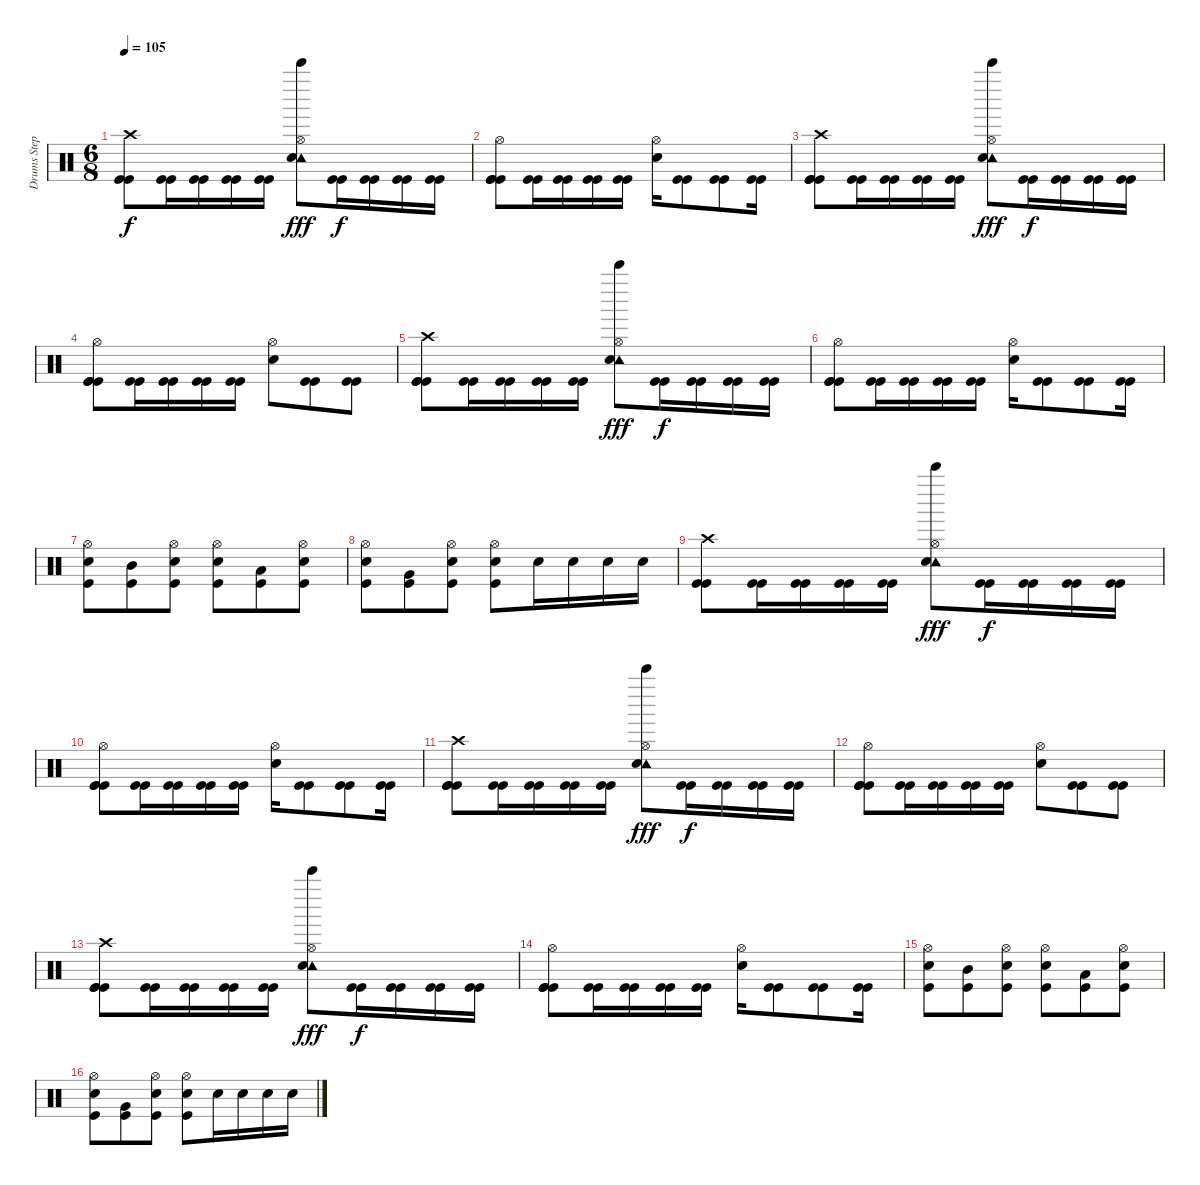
\track ("Drums Stephen van Haestregt" "Drums Step") {instrument percussion}
\staff {score}
\articulation defaults
\ts (6 8)
\tempo 105
\clef neutral
\ks c
("Kick (hit)" "Kick (hit)" "Crash high (hit)").8{dy f} ("Kick (hit)" "Kick (hit)").16 ("Kick (hit)" "Kick (hit)").16 ("Kick (hit)" "Kick (hit)").16 ("Kick (hit)" "Kick (hit)").16 ("Tambourine (hit)" "Bell Tree (hit)" "Snare (hit) 2" "Hi-Hat (open)").8{dy fff} ("Kick (hit)" "Kick (hit)").16{dy f} ("Kick (hit)" "Kick (hit)").16 ("Kick (hit)" "Kick (hit)").16 ("Kick (hit)" "Kick (hit)").16 |
("Kick (hit)" "Kick (hit)" "Kick (hit)" "Hi-Hat (open)").8 ("Kick (hit)" "Kick (hit)").16 ("Kick (hit)" "Kick (hit)").16 ("Kick (hit)" "Kick (hit)").16 ("Kick (hit)" "Kick (hit)").16 ("Snare (hit) 2" "Hi-Hat (open)").16 ("Kick (hit)" "Kick (hit)").8 ("Kick (hit)" "Kick (hit)").8 ("Kick (hit)" "Kick (hit)").16 |
("Kick (hit)" "Kick (hit)" "Kick (hit)" "Crash high (hit)").8 ("Kick (hit)" "Kick (hit)").16 ("Kick (hit)" "Kick (hit)").16 ("Kick (hit)" "Kick (hit)").16 ("Kick (hit)" "Kick (hit)").16 ("Tambourine (hit)" "Bell Tree (hit)" "Snare (hit) 2" "Hi-Hat (open)").8{dy fff} ("Kick (hit)" "Kick (hit)").16{dy f} ("Kick (hit)" "Kick (hit)").16 ("Kick (hit)" "Kick (hit)").16 ("Kick (hit)" "Kick (hit)").16 |
("Kick (hit)" "Kick (hit)" "Kick (hit)" "Hi-Hat (open)").8 ("Kick (hit)" "Kick (hit)").16 ("Kick (hit)" "Kick (hit)").16 ("Kick (hit)" "Kick (hit)").16 ("Kick (hit)" "Kick (hit)").16 ("Snare (hit) 2" "Hi-Hat (open)").8 ("Kick (hit)" "Kick (hit)").8 ("Kick (hit)" "Kick (hit)").8 |
("Kick (hit)" "Kick (hit)" "Kick (hit)" "Crash high (hit)").8 ("Kick (hit)" "Kick (hit)").16 ("Kick (hit)" "Kick (hit)").16 ("Kick (hit)" "Kick (hit)").16 ("Kick (hit)" "Kick (hit)").16 ("Bell Tree (hit)" "Tambourine (hit)" "Snare (hit) 2" "Hi-Hat (open)").8{dy fff} ("Kick (hit)" "Kick (hit)").16{dy f} ("Kick (hit)" "Kick (hit)").16 ("Kick (hit)" "Kick (hit)").16 ("Kick (hit)" "Kick (hit)").16 |
("Kick (hit)" "Kick (hit)" "Kick (hit)" "Hi-Hat (open)").8 ("Kick (hit)" "Kick (hit)").16 ("Kick (hit)" "Kick (hit)").16 ("Kick (hit)" "Kick (hit)").16 ("Kick (hit)" "Kick (hit)").16 ("Snare (hit) 2" "Hi-Hat (open)").16 ("Kick (hit)" "Kick (hit)").8 ("Kick (hit)" "Kick (hit)").8 ("Kick (hit)" "Kick (hit)").16 |
("Kick (hit)" "Snare (hit) 2" "Hi-Hat (open)").8 ("Kick (hit)" "Mid Tom (hit)").8 ("Kick (hit)" "Snare (hit) 2" "Hi-Hat (open)").8 ("Kick (hit)" "Snare (hit) 2" "Hi-Hat (open)").8 ("Kick (hit)" "Low Tom (hit)").8 ("Kick (hit)" "Snare (hit) 2" "Hi-Hat (open)").8 |
("Kick (hit)" "Snare (hit) 2" "Hi-Hat (open)").8 ("Kick (hit)" "Very Low Tom (hit)").8 ("Kick (hit)" "Snare (hit) 2" "Hi-Hat (open)").8 ("Kick (hit)" "Snare (hit) 2" "Hi-Hat (open)").8 "Snare (hit) 2".16 "Snare (hit) 2".16 "Snare (hit) 2".16 "Snare (hit) 2".16 |
("Kick (hit)" "Kick (hit)" "Crash high (hit)").8 ("Kick (hit)" "Kick (hit)").16 ("Kick (hit)" "Kick (hit)").16 ("Kick (hit)" "Kick (hit)").16 ("Kick (hit)" "Kick (hit)").16 ("Bell Tree (hit)" "Tambourine (hit)" "Snare (hit) 2" "Hi-Hat (open)").8{dy fff} ("Kick (hit)" "Kick (hit)").16{dy f} ("Kick (hit)" "Kick (hit)").16 ("Kick (hit)" "Kick (hit)").16 ("Kick (hit)" "Kick (hit)").16 |
("Kick (hit)" "Kick (hit)" "Kick (hit)" "Hi-Hat (open)").8 ("Kick (hit)" "Kick (hit)").16 ("Kick (hit)" "Kick (hit)").16 ("Kick (hit)" "Kick (hit)").16 ("Kick (hit)" "Kick (hit)").16 ("Snare (hit) 2" "Hi-Hat (open)").16 ("Kick (hit)" "Kick (hit)").8 ("Kick (hit)" "Kick (hit)").8 ("Kick (hit)" "Kick (hit)").16 |
("Kick (hit)" "Kick (hit)" "Kick (hit)" "Crash high (hit)").8 ("Kick (hit)" "Kick (hit)").16 ("Kick (hit)" "Kick (hit)").16 ("Kick (hit)" "Kick (hit)").16 ("Kick (hit)" "Kick (hit)").16 ("Bell Tree (hit)" "Tambourine (hit)" "Snare (hit) 2" "Hi-Hat (open)").8{dy fff} ("Kick (hit)" "Kick (hit)").16{dy f} ("Kick (hit)" "Kick (hit)").16 ("Kick (hit)" "Kick (hit)").16 ("Kick (hit)" "Kick (hit)").16 |
("Kick (hit)" "Kick (hit)" "Kick (hit)" "Hi-Hat (open)").8 ("Kick (hit)" "Kick (hit)").16 ("Kick (hit)" "Kick (hit)").16 ("Kick (hit)" "Kick (hit)").16 ("Kick (hit)" "Kick (hit)").16 ("Snare (hit) 2" "Hi-Hat (open)").8 ("Kick (hit)" "Kick (hit)").8 ("Kick (hit)" "Kick (hit)").8 |
("Kick (hit)" "Kick (hit)" "Kick (hit)" "Crash high (hit)").8 ("Kick (hit)" "Kick (hit)").16 ("Kick (hit)" "Kick (hit)").16 ("Kick (hit)" "Kick (hit)").16 ("Kick (hit)" "Kick (hit)").16 ("Bell Tree (hit)" "Tambourine (hit)" "Snare (hit) 2" "Hi-Hat (open)").8{dy fff} ("Kick (hit)" "Kick (hit)").16{dy f} ("Kick (hit)" "Kick (hit)").16 ("Kick (hit)" "Kick (hit)").16 ("Kick (hit)" "Kick (hit)").16 |
("Kick (hit)" "Kick (hit)" "Kick (hit)" "Hi-Hat (open)").8 ("Kick (hit)" "Kick (hit)").16 ("Kick (hit)" "Kick (hit)").16 ("Kick (hit)" "Kick (hit)").16 ("Kick (hit)" "Kick (hit)").16 ("Snare (hit) 2" "Hi-Hat (open)").16 ("Kick (hit)" "Kick (hit)").8 ("Kick (hit)" "Kick (hit)").8 ("Kick (hit)" "Kick (hit)").16 |
("Kick (hit)" "Snare (hit) 2" "Hi-Hat (open)").8 ("Kick (hit)" "Mid Tom (hit)").8 ("Kick (hit)" "Snare (hit) 2" "Hi-Hat (open)").8 ("Kick (hit)" "Snare (hit) 2" "Hi-Hat (open)").8 ("Kick (hit)" "Low Tom (hit)").8 ("Kick (hit)" "Snare (hit) 2" "Hi-Hat (open)").8 |
("Kick (hit)" "Snare (hit) 2" "Hi-Hat (open)").8 ("Kick (hit)" "Very Low Tom (hit)").8 ("Kick (hit)" "Snare (hit) 2" "Hi-Hat (open)").8 ("Kick (hit)" "Snare (hit) 2" "Hi-Hat (open)").8 "Snare (hit) 2".16 "Snare (hit) 2".16 "Snare (hit) 2".16 "Snare (hit) 2".16
